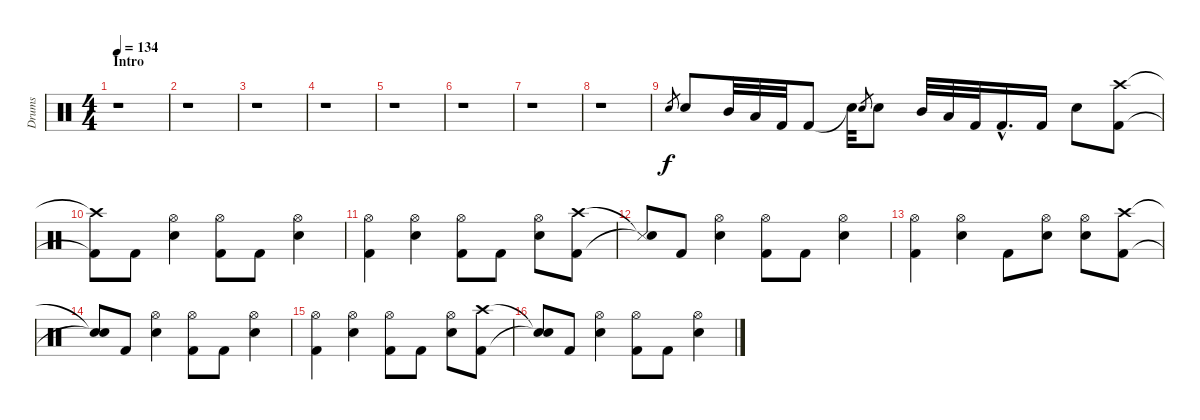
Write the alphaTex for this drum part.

\track ("Drums" "Drums") {instrument percussion}
\staff {score}
\articulation defaults
\ts (4 4)
\section ("" "Intro")
\tempo 134
\clef neutral
\ks c
r.1{dy f} |
r.1 |
r.1 |
r.1 |
r.1 |
r.1 |
r.1 |
r.1 |
"Snare (hit) 2".8{gr} "Snare (hit) 2".8 "Mid Tom (hit)".32 "Low Tom (hit)".32 "Kick (hit) 2".32 "Kick (hit) 2".8 "Snare (hit)"{t}.32 "Snare (hit) 2".8{gr} "Snare (hit) 2".8 "Mid Tom (hit)".32 "Low Tom (hit)".32 "Kick (hit) 2".32 "Kick (hit) 2"{hac}.16{d} "Kick (hit) 2".16 "Snare (hit) 2".8 ("Crash high (hit)" "Kick (hit) 2").8 |
("Crash high (hit)"{t} "Kick (hit) 2"{t}).8 "Kick (hit) 2".8 ("Hi-Hat (open)" "Snare (hit) 2").4 ("Hi-Hat (open)" "Kick (hit) 2").8 "Kick (hit) 2".8 ("Hi-Hat (open)" "Snare (hit) 2").4 |
("Hi-Hat (open)" "Kick (hit) 2").4 ("Hi-Hat (open)" "Snare (hit) 2").4 ("Hi-Hat (open)" "Kick (hit) 2").8 "Kick (hit) 2".8 ("Hi-Hat (open)" "Snare (hit) 2").8 ("Crash high (hit)" "Kick (hit) 2").8 |
("Metronome (hit)"{t} "Snare (hit)"{t}).8 "Kick (hit) 2".8 ("Hi-Hat (open)" "Snare (hit) 2").4 ("Hi-Hat (open)" "Kick (hit) 2").8 "Kick (hit) 2".8 ("Hi-Hat (open)" "Snare (hit) 2").4 |
("Hi-Hat (open)" "Kick (hit) 2").4 ("Hi-Hat (open)" "Snare (hit) 2").4 "Kick (hit) 2".8 ("Hi-Hat (open)" "Snare (hit) 2").8 ("Hi-Hat (open)" "Snare (hit) 2").8 ("Crash high (hit)" "Kick (hit) 2").8 |
("Snare (hit)"{t} "Snare (hit)"{t}).8 "Kick (hit) 2".8 ("Hi-Hat (open)" "Snare (hit) 2").4 ("Hi-Hat (open)" "Kick (hit) 2").8 "Kick (hit) 2".8 ("Hi-Hat (open)" "Snare (hit) 2").4 |
("Hi-Hat (open)" "Kick (hit) 2").4 ("Hi-Hat (open)" "Snare (hit) 2").4 ("Hi-Hat (open)" "Kick (hit) 2").8 "Kick (hit) 2".8 ("Hi-Hat (open)" "Snare (hit) 2").8 ("Crash high (hit)" "Kick (hit) 2").8 |
("Snare (hit)"{t} "Snare (hit)"{t}).8 "Kick (hit) 2".8 ("Hi-Hat (open)" "Snare (hit) 2").4 ("Hi-Hat (open)" "Kick (hit) 2").8 "Kick (hit) 2".8 ("Hi-Hat (open)" "Snare (hit) 2").4
